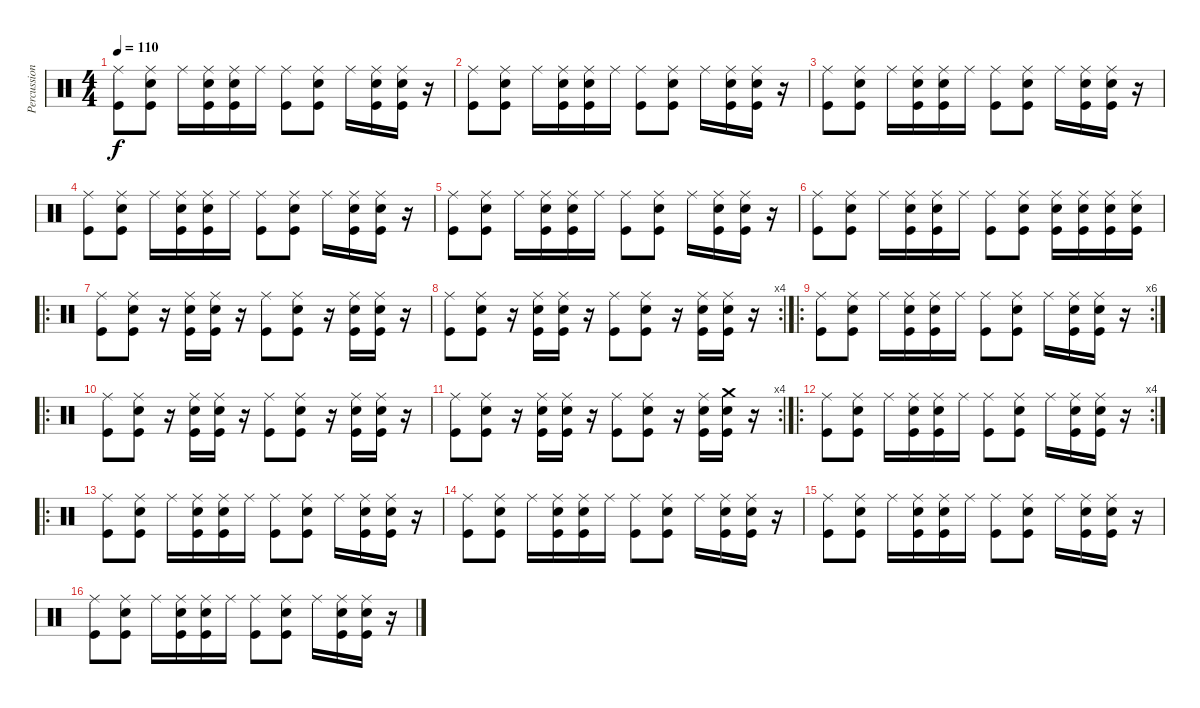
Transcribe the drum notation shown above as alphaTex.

\track ("Percussion" "Percussion") {instrument percussion}
\staff {score}
\articulation defaults
\ts (4 4)
\tempo 110
\clef neutral
\ks c
("Ride (middle)" "Kick (hit)").8{dy f} ("Snare (hit) 2" "Ride (middle)" "Kick (hit)").8 "Ride (middle)".16 ("Snare (hit) 2" "Ride (middle)" "Kick (hit)").16 ("Snare (hit) 2" "Ride (middle)" "Kick (hit)").16 "Ride (middle)".16 ("Ride (middle)" "Kick (hit)").8 ("Snare (hit) 2" "Ride (middle)" "Kick (hit)").8 "Ride (middle)".16 ("Snare (hit) 2" "Ride (middle)" "Kick (hit)").16 ("Snare (hit) 2" "Ride (middle)" "Kick (hit)").16 r.16 |
("Ride (middle)" "Kick (hit)").8 ("Snare (hit) 2" "Ride (middle)" "Kick (hit)").8 "Ride (middle)".16 ("Snare (hit) 2" "Ride (middle)" "Kick (hit)").16 ("Snare (hit) 2" "Ride (middle)" "Kick (hit)").16 "Ride (middle)".16 ("Ride (middle)" "Kick (hit)").8 ("Snare (hit) 2" "Ride (middle)" "Kick (hit)").8 "Ride (middle)".16 ("Snare (hit) 2" "Ride (middle)" "Kick (hit)").16 ("Snare (hit) 2" "Ride (middle)" "Kick (hit)").16 r.16 |
("Ride (middle)" "Kick (hit)").8 ("Snare (hit) 2" "Ride (middle)" "Kick (hit)").8 "Ride (middle)".16 ("Snare (hit) 2" "Ride (middle)" "Kick (hit)").16 ("Snare (hit) 2" "Ride (middle)" "Kick (hit)").16 "Ride (middle)".16 ("Ride (middle)" "Kick (hit)").8 ("Snare (hit) 2" "Ride (middle)" "Kick (hit)").8 "Ride (middle)".16 ("Snare (hit) 2" "Ride (middle)" "Kick (hit)").16 ("Snare (hit) 2" "Ride (middle)" "Kick (hit)").16 r.16 |
("Ride (middle)" "Kick (hit)").8 ("Snare (hit) 2" "Ride (middle)" "Kick (hit)").8 "Ride (middle)".16 ("Snare (hit) 2" "Ride (middle)" "Kick (hit)").16 ("Snare (hit) 2" "Ride (middle)" "Kick (hit)").16 "Ride (middle)".16 ("Ride (middle)" "Kick (hit)").8 ("Snare (hit) 2" "Ride (middle)" "Kick (hit)").8 "Ride (middle)".16 ("Snare (hit) 2" "Ride (middle)" "Kick (hit)").16 ("Snare (hit) 2" "Ride (middle)" "Kick (hit)").16 r.16 |
("Ride (middle)" "Kick (hit)").8 ("Snare (hit) 2" "Ride (middle)" "Kick (hit)").8 "Ride (middle)".16 ("Snare (hit) 2" "Ride (middle)" "Kick (hit)").16 ("Snare (hit) 2" "Ride (middle)" "Kick (hit)").16 "Ride (middle)".16 ("Ride (middle)" "Kick (hit)").8 ("Snare (hit) 2" "Ride (middle)" "Kick (hit)").8 "Ride (middle)".16 ("Snare (hit) 2" "Ride (middle)" "Kick (hit)").16 ("Snare (hit) 2" "Ride (middle)" "Kick (hit)").16 r.16 |
("Ride (middle)" "Kick (hit)").8 ("Snare (hit) 2" "Ride (middle)" "Kick (hit)").8 "Ride (middle)".16 ("Snare (hit) 2" "Ride (middle)" "Kick (hit)").16 ("Snare (hit) 2" "Ride (middle)" "Kick (hit)").16 "Ride (middle)".16 ("Ride (middle)" "Kick (hit)").8 ("Snare (hit) 2" "Ride (middle)" "Kick (hit)").8 ("Snare (hit) 2" "Ride (middle)" "Kick (hit)").16 ("Snare (hit) 2" "Ride (middle)" "Kick (hit)").16 ("Snare (hit) 2" "Ride (middle)" "Kick (hit)").16 ("Snare (hit) 2" "Ride (middle)" "Kick (hit)").16 |
\ro
("Ride (middle)" "Kick (hit)").8 ("Snare (hit) 2" "Ride (middle)" "Kick (hit)").8 r.16 ("Snare (hit) 2" "Ride (middle)" "Kick (hit)").16 ("Snare (hit) 2" "Ride (middle)" "Kick (hit)").16 r.16 ("Ride (middle)" "Kick (hit)").8 ("Snare (hit) 2" "Ride (middle)" "Kick (hit)").8 r.16 ("Snare (hit) 2" "Ride (middle)" "Kick (hit)").16 ("Snare (hit) 2" "Ride (middle)" "Kick (hit)").16 r.16 |
\rc 4
("Ride (middle)" "Kick (hit)").8 ("Snare (hit) 2" "Ride (middle)" "Kick (hit)").8 r.16 ("Snare (hit) 2" "Ride (middle)" "Kick (hit)").16 ("Snare (hit) 2" "Ride (middle)" "Kick (hit)").16 r.16 ("Ride (middle)" "Kick (hit)").8 ("Snare (hit) 2" "Ride (middle)" "Kick (hit)").8 r.16 ("Snare (hit) 2" "Ride (middle)" "Kick (hit)").16 ("Snare (hit) 2" "Ride (middle)" "Kick (hit)").16 r.16 |
\ro
\rc 6
("Ride (middle)" "Kick (hit)").8 ("Snare (hit) 2" "Ride (middle)" "Kick (hit)").8 "Ride (middle)".16 ("Snare (hit) 2" "Ride (middle)" "Kick (hit)").16 ("Snare (hit) 2" "Ride (middle)" "Kick (hit)").16 "Ride (middle)".16 ("Ride (middle)" "Kick (hit)").8 ("Snare (hit) 2" "Ride (middle)" "Kick (hit)").8 "Ride (middle)".16 ("Snare (hit) 2" "Ride (middle)" "Kick (hit)").16 ("Snare (hit) 2" "Ride (middle)" "Kick (hit)").16 r.16 |
\ro
("Ride (middle)" "Kick (hit)").8 ("Snare (hit) 2" "Ride (middle)" "Kick (hit)").8 r.16 ("Snare (hit) 2" "Ride (middle)" "Kick (hit)").16 ("Snare (hit) 2" "Ride (middle)" "Kick (hit)").16 r.16 ("Ride (middle)" "Kick (hit)").8 ("Snare (hit) 2" "Ride (middle)" "Kick (hit)").8 r.16 ("Snare (hit) 2" "Ride (middle)" "Kick (hit)").16 ("Snare (hit) 2" "Ride (middle)" "Kick (hit)").16 r.16 |
\rc 4
("Ride (middle)" "Kick (hit)").8 ("Snare (hit) 2" "Ride (middle)" "Kick (hit)").8 r.16 ("Snare (hit) 2" "Ride (middle)" "Kick (hit)").16 ("Snare (hit) 2" "Ride (middle)" "Kick (hit)").16 r.16 ("Ride (middle)" "Kick (hit)").8 ("Snare (hit) 2" "Ride (middle)" "Kick (hit)").8 r.16 ("Snare (hit) 2" "Ride (middle)" "Kick (hit)").16 ("Snare (hit) 2" "Crash medium (hit)" "Kick (hit)").16 r.16 |
\ro
\rc 4
("Ride (middle)" "Kick (hit)").8 ("Snare (hit) 2" "Ride (middle)" "Kick (hit)").8 "Ride (middle)".16 ("Snare (hit) 2" "Ride (middle)" "Kick (hit)").16 ("Snare (hit) 2" "Ride (middle)" "Kick (hit)").16 "Ride (middle)".16 ("Ride (middle)" "Kick (hit)").8 ("Snare (hit) 2" "Ride (middle)" "Kick (hit)").8 "Ride (middle)".16 ("Snare (hit) 2" "Ride (middle)" "Kick (hit)").16 ("Snare (hit) 2" "Ride (middle)" "Kick (hit)").16 r.16 |
\ro
("Ride (middle)" "Kick (hit)").8 ("Snare (hit) 2" "Ride (middle)" "Kick (hit)").8 "Ride (middle)".16 ("Snare (hit) 2" "Ride (middle)" "Kick (hit)").16 ("Snare (hit) 2" "Ride (middle)" "Kick (hit)").16 "Ride (middle)".16 ("Ride (middle)" "Kick (hit)").8 ("Snare (hit) 2" "Ride (middle)" "Kick (hit)").8 "Ride (middle)".16 ("Snare (hit) 2" "Ride (middle)" "Kick (hit)").16 ("Snare (hit) 2" "Ride (middle)" "Kick (hit)").16 r.16 |
("Ride (middle)" "Kick (hit)").8 ("Snare (hit) 2" "Ride (middle)" "Kick (hit)").8 "Ride (middle)".16 ("Snare (hit) 2" "Ride (middle)" "Kick (hit)").16 ("Snare (hit) 2" "Ride (middle)" "Kick (hit)").16 "Ride (middle)".16 ("Ride (middle)" "Kick (hit)").8 ("Snare (hit) 2" "Ride (middle)" "Kick (hit)").8 "Ride (middle)".16 ("Snare (hit) 2" "Ride (middle)" "Kick (hit)").16 ("Snare (hit) 2" "Ride (middle)" "Kick (hit)").16 r.16 |
("Ride (middle)" "Kick (hit)").8 ("Snare (hit) 2" "Ride (middle)" "Kick (hit)").8 "Ride (middle)".16 ("Snare (hit) 2" "Ride (middle)" "Kick (hit)").16 ("Snare (hit) 2" "Ride (middle)" "Kick (hit)").16 "Ride (middle)".16 ("Ride (middle)" "Kick (hit)").8 ("Snare (hit) 2" "Ride (middle)" "Kick (hit)").8 "Ride (middle)".16 ("Snare (hit) 2" "Ride (middle)" "Kick (hit)").16 ("Snare (hit) 2" "Ride (middle)" "Kick (hit)").16 r.16 |
("Ride (middle)" "Kick (hit)").8 ("Snare (hit) 2" "Ride (middle)" "Kick (hit)").8 "Ride (middle)".16 ("Snare (hit) 2" "Ride (middle)" "Kick (hit)").16 ("Snare (hit) 2" "Ride (middle)" "Kick (hit)").16 "Ride (middle)".16 ("Ride (middle)" "Kick (hit)").8 ("Snare (hit) 2" "Ride (middle)" "Kick (hit)").8 "Ride (middle)".16 ("Snare (hit) 2" "Ride (middle)" "Kick (hit)").16 ("Snare (hit) 2" "Ride (middle)" "Kick (hit)").16 r.16
